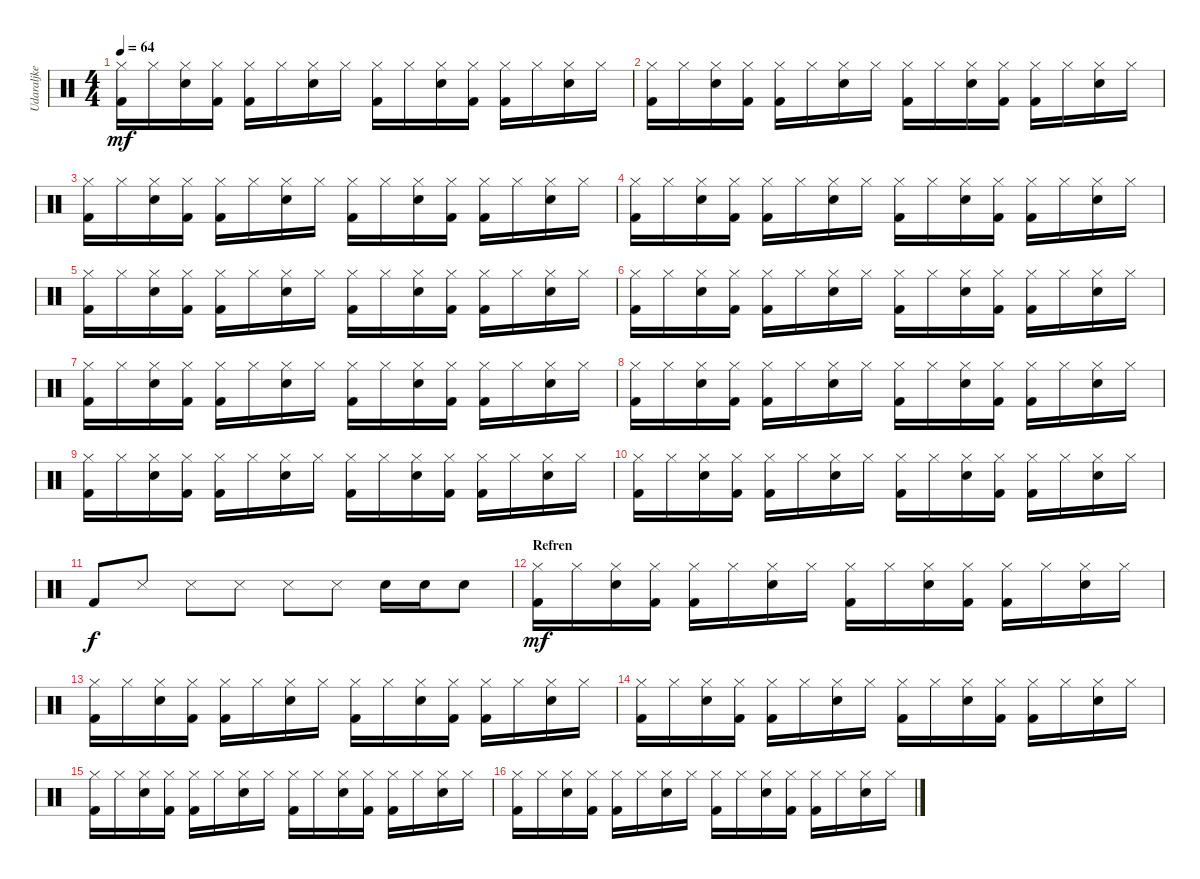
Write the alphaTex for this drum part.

\track ("Udaraljke" "Udaraljke") {instrument percussion}
\staff {score}
\articulation defaults
\ts (4 4)
\tempo 64
\clef neutral
\ks c
("Kick (hit) 2" "Hi-Hat (closed)").16{dy mf} "Hi-Hat (closed)".16 ("Snare (hit) 2" "Hi-Hat (closed)").16 ("Kick (hit) 2" "Hi-Hat (closed)").16 ("Kick (hit) 2" "Hi-Hat (closed)").16 "Hi-Hat (closed)".16 ("Snare (hit) 2" "Hi-Hat (closed)").16 "Hi-Hat (closed)".16 ("Kick (hit) 2" "Hi-Hat (closed)").16 "Hi-Hat (closed)".16 ("Snare (hit) 2" "Hi-Hat (closed)").16 ("Kick (hit) 2" "Hi-Hat (closed)").16 ("Kick (hit) 2" "Hi-Hat (closed)").16 "Hi-Hat (closed)".16 ("Snare (hit) 2" "Hi-Hat (closed)").16 "Hi-Hat (closed)".16 |
("Kick (hit) 2" "Hi-Hat (closed)").16 "Hi-Hat (closed)".16 ("Snare (hit) 2" "Hi-Hat (closed)").16 ("Kick (hit) 2" "Hi-Hat (closed)").16 ("Kick (hit) 2" "Hi-Hat (closed)").16 "Hi-Hat (closed)".16 ("Snare (hit) 2" "Hi-Hat (closed)").16 "Hi-Hat (closed)".16 ("Kick (hit) 2" "Hi-Hat (closed)").16 "Hi-Hat (closed)".16 ("Snare (hit) 2" "Hi-Hat (closed)").16 ("Kick (hit) 2" "Hi-Hat (closed)").16 ("Kick (hit) 2" "Hi-Hat (closed)").16 "Hi-Hat (closed)".16 ("Snare (hit) 2" "Hi-Hat (closed)").16 "Hi-Hat (closed)".16 |
("Kick (hit) 2" "Hi-Hat (closed)").16 "Hi-Hat (closed)".16 ("Snare (hit) 2" "Hi-Hat (closed)").16 ("Kick (hit) 2" "Hi-Hat (closed)").16 ("Kick (hit) 2" "Hi-Hat (closed)").16 "Hi-Hat (closed)".16 ("Snare (hit) 2" "Hi-Hat (closed)").16 "Hi-Hat (closed)".16 ("Kick (hit) 2" "Hi-Hat (closed)").16 "Hi-Hat (closed)".16 ("Snare (hit) 2" "Hi-Hat (closed)").16 ("Kick (hit) 2" "Hi-Hat (closed)").16 ("Kick (hit) 2" "Hi-Hat (closed)").16 "Hi-Hat (closed)".16 ("Snare (hit) 2" "Hi-Hat (closed)").16 "Hi-Hat (closed)".16 |
("Kick (hit) 2" "Hi-Hat (closed)").16 "Hi-Hat (closed)".16 ("Snare (hit) 2" "Hi-Hat (closed)").16 ("Kick (hit) 2" "Hi-Hat (closed)").16 ("Kick (hit) 2" "Hi-Hat (closed)").16 "Hi-Hat (closed)".16 ("Snare (hit) 2" "Hi-Hat (closed)").16 "Hi-Hat (closed)".16 ("Kick (hit) 2" "Hi-Hat (closed)").16 "Hi-Hat (closed)".16 ("Snare (hit) 2" "Hi-Hat (closed)").16 ("Kick (hit) 2" "Hi-Hat (closed)").16 ("Kick (hit) 2" "Hi-Hat (closed)").16 "Hi-Hat (closed)".16 ("Snare (hit) 2" "Hi-Hat (closed)").16 "Hi-Hat (closed)".16 |
("Kick (hit) 2" "Hi-Hat (closed)").16 "Hi-Hat (closed)".16 ("Snare (hit) 2" "Hi-Hat (closed)").16 ("Kick (hit) 2" "Hi-Hat (closed)").16 ("Kick (hit) 2" "Hi-Hat (closed)").16 "Hi-Hat (closed)".16 ("Snare (hit) 2" "Hi-Hat (closed)").16 "Hi-Hat (closed)".16 ("Kick (hit) 2" "Hi-Hat (closed)").16 "Hi-Hat (closed)".16 ("Snare (hit) 2" "Hi-Hat (closed)").16 ("Kick (hit) 2" "Hi-Hat (closed)").16 ("Kick (hit) 2" "Hi-Hat (closed)").16 "Hi-Hat (closed)".16 ("Snare (hit) 2" "Hi-Hat (closed)").16 "Hi-Hat (closed)".16 |
("Kick (hit) 2" "Hi-Hat (closed)").16 "Hi-Hat (closed)".16 ("Snare (hit) 2" "Hi-Hat (closed)").16 ("Kick (hit) 2" "Hi-Hat (closed)").16 ("Kick (hit) 2" "Hi-Hat (closed)").16 "Hi-Hat (closed)".16 ("Snare (hit) 2" "Hi-Hat (closed)").16 "Hi-Hat (closed)".16 ("Kick (hit) 2" "Hi-Hat (closed)").16 "Hi-Hat (closed)".16 ("Snare (hit) 2" "Hi-Hat (closed)").16 ("Kick (hit) 2" "Hi-Hat (closed)").16 ("Kick (hit) 2" "Hi-Hat (closed)").16 "Hi-Hat (closed)".16 ("Snare (hit) 2" "Hi-Hat (closed)").16 "Hi-Hat (closed)".16 |
("Kick (hit) 2" "Hi-Hat (closed)").16 "Hi-Hat (closed)".16 ("Snare (hit) 2" "Hi-Hat (closed)").16 ("Kick (hit) 2" "Hi-Hat (closed)").16 ("Kick (hit) 2" "Hi-Hat (closed)").16 "Hi-Hat (closed)".16 ("Snare (hit) 2" "Hi-Hat (closed)").16 "Hi-Hat (closed)".16 ("Kick (hit) 2" "Hi-Hat (closed)").16 "Hi-Hat (closed)".16 ("Snare (hit) 2" "Hi-Hat (closed)").16 ("Kick (hit) 2" "Hi-Hat (closed)").16 ("Kick (hit) 2" "Hi-Hat (closed)").16 "Hi-Hat (closed)".16 ("Snare (hit) 2" "Hi-Hat (closed)").16 "Hi-Hat (closed)".16 |
("Kick (hit) 2" "Hi-Hat (closed)").16 "Hi-Hat (closed)".16 ("Snare (hit) 2" "Hi-Hat (closed)").16 ("Kick (hit) 2" "Hi-Hat (closed)").16 ("Kick (hit) 2" "Hi-Hat (closed)").16 "Hi-Hat (closed)".16 ("Snare (hit) 2" "Hi-Hat (closed)").16 "Hi-Hat (closed)".16 ("Kick (hit) 2" "Hi-Hat (closed)").16 "Hi-Hat (closed)".16 ("Snare (hit) 2" "Hi-Hat (closed)").16 ("Kick (hit) 2" "Hi-Hat (closed)").16 ("Kick (hit) 2" "Hi-Hat (closed)").16 "Hi-Hat (closed)".16 ("Snare (hit) 2" "Hi-Hat (closed)").16 "Hi-Hat (closed)".16 |
("Kick (hit) 2" "Hi-Hat (closed)").16 "Hi-Hat (closed)".16 ("Snare (hit) 2" "Hi-Hat (closed)").16 ("Kick (hit) 2" "Hi-Hat (closed)").16 ("Kick (hit) 2" "Hi-Hat (closed)").16 "Hi-Hat (closed)".16 ("Snare (hit) 2" "Hi-Hat (closed)").16 "Hi-Hat (closed)".16 ("Kick (hit) 2" "Hi-Hat (closed)").16 "Hi-Hat (closed)".16 ("Snare (hit) 2" "Hi-Hat (closed)").16 ("Kick (hit) 2" "Hi-Hat (closed)").16 ("Kick (hit) 2" "Hi-Hat (closed)").16 "Hi-Hat (closed)".16 ("Snare (hit) 2" "Hi-Hat (closed)").16 "Hi-Hat (closed)".16 |
("Kick (hit) 2" "Hi-Hat (closed)").16 "Hi-Hat (closed)".16 ("Snare (hit) 2" "Hi-Hat (closed)").16 ("Kick (hit) 2" "Hi-Hat (closed)").16 ("Kick (hit) 2" "Hi-Hat (closed)").16 "Hi-Hat (closed)".16 ("Snare (hit) 2" "Hi-Hat (closed)").16 "Hi-Hat (closed)".16 ("Kick (hit) 2" "Hi-Hat (closed)").16 "Hi-Hat (closed)".16 ("Snare (hit) 2" "Hi-Hat (closed)").16 ("Kick (hit) 2" "Hi-Hat (closed)").16 ("Kick (hit) 2" "Hi-Hat (closed)").16 "Hi-Hat (closed)".16 ("Snare (hit) 2" "Hi-Hat (closed)").16 "Hi-Hat (closed)".16 |
"Kick (hit) 2".8{dy f} "Snare (side stick) 3".8 "Snare (side stick) 3".8 "Snare (side stick) 3".8 "Snare (side stick) 3".8 "Snare (side stick) 3".8 "Snare (hit) 2".16 "Snare (hit) 2".16 "Snare (hit) 2".8 |
\section ("" "Refren")
("Kick (hit) 2" "Hi-Hat (closed)").16{dy mf} "Hi-Hat (closed)".16 ("Snare (hit) 2" "Hi-Hat (closed)").16 ("Kick (hit) 2" "Hi-Hat (closed)").16 ("Kick (hit) 2" "Hi-Hat (closed)").16 "Hi-Hat (closed)".16 ("Snare (hit) 2" "Hi-Hat (closed)").16 "Hi-Hat (closed)".16 ("Kick (hit) 2" "Hi-Hat (closed)").16 "Hi-Hat (closed)".16 ("Snare (hit) 2" "Hi-Hat (closed)").16 ("Kick (hit) 2" "Hi-Hat (closed)").16 ("Kick (hit) 2" "Hi-Hat (closed)").16 "Hi-Hat (closed)".16 ("Snare (hit) 2" "Hi-Hat (closed)").16 "Hi-Hat (closed)".16 |
("Kick (hit) 2" "Hi-Hat (closed)").16 "Hi-Hat (closed)".16 ("Snare (hit) 2" "Hi-Hat (closed)").16 ("Kick (hit) 2" "Hi-Hat (closed)").16 ("Kick (hit) 2" "Hi-Hat (closed)").16 "Hi-Hat (closed)".16 ("Snare (hit) 2" "Hi-Hat (closed)").16 "Hi-Hat (closed)".16 ("Kick (hit) 2" "Hi-Hat (closed)").16 "Hi-Hat (closed)".16 ("Snare (hit) 2" "Hi-Hat (closed)").16 ("Kick (hit) 2" "Hi-Hat (closed)").16 ("Kick (hit) 2" "Hi-Hat (closed)").16 "Hi-Hat (closed)".16 ("Snare (hit) 2" "Hi-Hat (closed)").16 "Hi-Hat (closed)".16 |
("Kick (hit) 2" "Hi-Hat (closed)").16 "Hi-Hat (closed)".16 ("Snare (hit) 2" "Hi-Hat (closed)").16 ("Kick (hit) 2" "Hi-Hat (closed)").16 ("Kick (hit) 2" "Hi-Hat (closed)").16 "Hi-Hat (closed)".16 ("Snare (hit) 2" "Hi-Hat (closed)").16 "Hi-Hat (closed)".16 ("Kick (hit) 2" "Hi-Hat (closed)").16 "Hi-Hat (closed)".16 ("Snare (hit) 2" "Hi-Hat (closed)").16 ("Kick (hit) 2" "Hi-Hat (closed)").16 ("Kick (hit) 2" "Hi-Hat (closed)").16 "Hi-Hat (closed)".16 ("Snare (hit) 2" "Hi-Hat (closed)").16 "Hi-Hat (closed)".16 |
("Kick (hit) 2" "Hi-Hat (closed)").16 "Hi-Hat (closed)".16 ("Snare (hit) 2" "Hi-Hat (closed)").16 ("Kick (hit) 2" "Hi-Hat (closed)").16 ("Kick (hit) 2" "Hi-Hat (closed)").16 "Hi-Hat (closed)".16 ("Snare (hit) 2" "Hi-Hat (closed)").16 "Hi-Hat (closed)".16 ("Kick (hit) 2" "Hi-Hat (closed)").16 "Hi-Hat (closed)".16 ("Snare (hit) 2" "Hi-Hat (closed)").16 ("Kick (hit) 2" "Hi-Hat (closed)").16 ("Kick (hit) 2" "Hi-Hat (closed)").16 "Hi-Hat (closed)".16 ("Snare (hit) 2" "Hi-Hat (closed)").16 "Hi-Hat (closed)".16 |
("Kick (hit) 2" "Hi-Hat (closed)").16 "Hi-Hat (closed)".16 ("Snare (hit) 2" "Hi-Hat (closed)").16 ("Kick (hit) 2" "Hi-Hat (closed)").16 ("Kick (hit) 2" "Hi-Hat (closed)").16 "Hi-Hat (closed)".16 ("Snare (hit) 2" "Hi-Hat (closed)").16 "Hi-Hat (closed)".16 ("Kick (hit) 2" "Hi-Hat (closed)").16 "Hi-Hat (closed)".16 ("Snare (hit) 2" "Hi-Hat (closed)").16 ("Kick (hit) 2" "Hi-Hat (closed)").16 ("Kick (hit) 2" "Hi-Hat (closed)").16 "Hi-Hat (closed)".16 ("Snare (hit) 2" "Hi-Hat (closed)").16 "Hi-Hat (closed)".16
